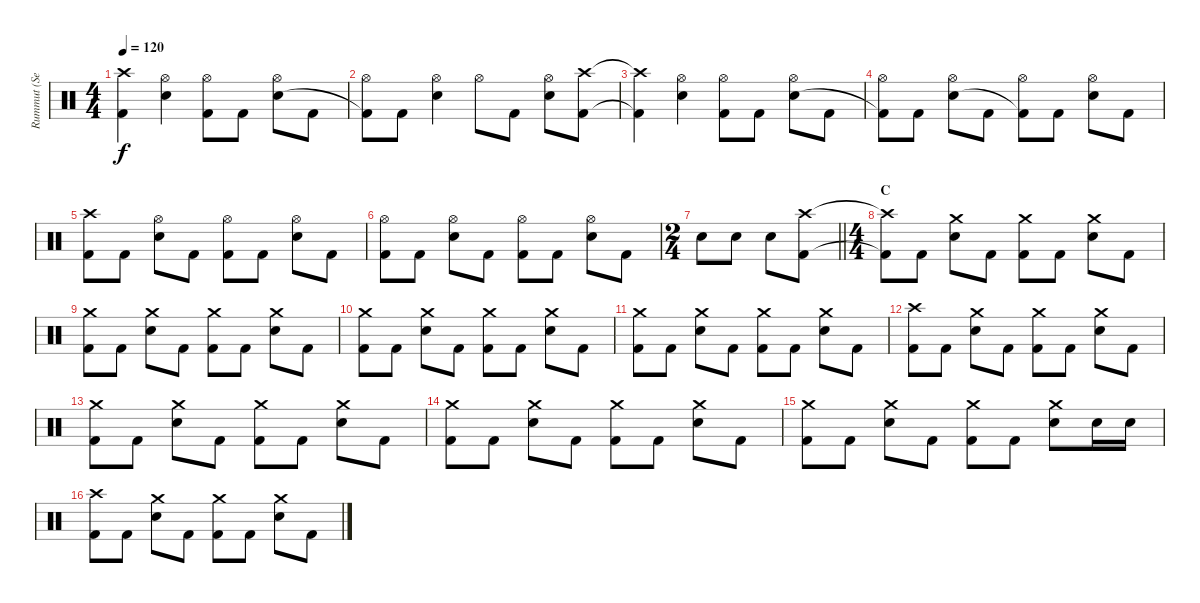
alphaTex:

\track ("Rummut (Seppo Pohjolainen)" "Rummut (Se") {instrument percussion}
\staff {score}
\articulation defaults
\ts (4 4)
\tempo 120
\clef neutral
\ks c
("Crash high (hit)"{t} "Kick (hit) 2"{t}).4{dy f} ("Hi-Hat (open)" "Electric Snare (hit)").4 ("Hi-Hat (open)" "Kick (hit) 2").8 "Kick (hit) 2".8 ("Hi-Hat (open)" "Electric Snare (hit)").8 "Kick (hit) 2".8 |
("Hi-Hat (open)" "Kick (hit) 2"{t}).8 "Kick (hit) 2".8 ("Hi-Hat (open)" "Electric Snare (hit)").4 "Hi-Hat (open)".8 "Kick (hit) 2".8 ("Hi-Hat (open)" "Electric Snare (hit)").8 ("Crash high (hit)" "Kick (hit) 2").8 |
("Crash high (hit)"{t} "Kick (hit) 2"{t}).4 ("Hi-Hat (open)" "Electric Snare (hit)").4 ("Hi-Hat (open)" "Kick (hit) 2").8 "Kick (hit) 2".8 ("Hi-Hat (open)" "Electric Snare (hit)").8 "Kick (hit) 2".8 |
("Hi-Hat (open)" "Kick (hit) 2"{t}).8 "Kick (hit) 2".8 ("Hi-Hat (open)" "Electric Snare (hit)").8 "Kick (hit) 2".8 ("Hi-Hat (open)" "Kick (hit) 2"{t}).8 "Kick (hit) 2".8 ("Hi-Hat (open)" "Electric Snare (hit)").8 "Kick (hit) 2".8 |
("Crash high (hit)" "Kick (hit) 2").8 "Kick (hit) 2".8 ("Hi-Hat (open)" "Electric Snare (hit)").8 "Kick (hit) 2".8 ("Hi-Hat (open)" "Kick (hit) 2").8 "Kick (hit) 2".8 ("Hi-Hat (open)" "Electric Snare (hit)").8 "Kick (hit) 2".8 |
("Hi-Hat (open)" "Kick (hit) 2").8 "Kick (hit) 2".8 ("Hi-Hat (open)" "Electric Snare (hit)").8 "Kick (hit) 2".8 ("Hi-Hat (open)" "Kick (hit) 2").8 "Kick (hit) 2".8 ("Hi-Hat (open)" "Electric Snare (hit)").8 "Kick (hit) 2".8 |
\ts (2 4)
\barLineRight lightlight "Electric Snare (hit)".8 "Electric Snare (hit)".8 "Electric Snare (hit)".8
("Crash high (hit)" "Kick (hit) 2").8 |
\ts (4 4)
\section ("" "C")
("Crash high (hit)"{t} "Kick (hit) 2"{t}).8 "Kick (hit) 2".8 ("Crash medium (hit)" "Electric Snare (hit)").8 "Kick (hit) 2".8 ("Crash medium (hit)" "Kick (hit) 2").8 "Kick (hit) 2".8 ("Crash medium (hit)" "Electric Snare (hit)").8 "Kick (hit) 2".8 |
("Crash medium (hit)" "Kick (hit) 2").8 "Kick (hit) 2".8 ("Crash medium (hit)" "Electric Snare (hit)").8 "Kick (hit) 2".8 ("Crash medium (hit)" "Kick (hit) 2").8 "Kick (hit) 2".8 ("Crash medium (hit)" "Electric Snare (hit)").8 "Kick (hit) 2".8 |
("Crash medium (hit)" "Kick (hit) 2").8 "Kick (hit) 2".8 ("Crash medium (hit)" "Electric Snare (hit)").8 "Kick (hit) 2".8 ("Crash medium (hit)" "Kick (hit) 2").8 "Kick (hit) 2".8 ("Crash medium (hit)" "Electric Snare (hit)").8 "Kick (hit) 2".8 |
("Crash medium (hit)" "Kick (hit) 2").8 "Kick (hit) 2".8 ("Crash medium (hit)" "Electric Snare (hit)").8 "Kick (hit) 2".8 ("Crash medium (hit)" "Kick (hit) 2").8 "Kick (hit) 2".8 ("Crash medium (hit)" "Electric Snare (hit)").8 "Kick (hit) 2".8 |
("Crash high (hit)" "Kick (hit) 2").8 "Kick (hit) 2".8 ("Crash medium (hit)" "Electric Snare (hit)").8 "Kick (hit) 2".8 ("Crash medium (hit)" "Kick (hit) 2").8 "Kick (hit) 2".8 ("Crash medium (hit)" "Electric Snare (hit)").8 "Kick (hit) 2".8 |
("Crash medium (hit)" "Kick (hit) 2").8 "Kick (hit) 2".8 ("Crash medium (hit)" "Electric Snare (hit)").8 "Kick (hit) 2".8 ("Crash medium (hit)" "Kick (hit) 2").8 "Kick (hit) 2".8 ("Crash medium (hit)" "Electric Snare (hit)").8 "Kick (hit) 2".8 |
("Crash medium (hit)" "Kick (hit) 2").8 "Kick (hit) 2".8 ("Crash medium (hit)" "Electric Snare (hit)").8 "Kick (hit) 2".8 ("Crash medium (hit)" "Kick (hit) 2").8 "Kick (hit) 2".8 ("Crash medium (hit)" "Electric Snare (hit)").8 "Kick (hit) 2".8 |
("Crash medium (hit)" "Kick (hit) 2").8 "Kick (hit) 2".8 ("Crash medium (hit)" "Electric Snare (hit)").8 "Kick (hit) 2".8 ("Crash medium (hit)" "Kick (hit) 2").8 "Kick (hit) 2".8 ("Crash medium (hit)" "Electric Snare (hit)").8 "Electric Snare (hit)".16 "Electric Snare (hit)".16 |
("Crash high (hit)" "Kick (hit) 2").8 "Kick (hit) 2".8 ("Crash medium (hit)" "Electric Snare (hit)").8 "Kick (hit) 2".8 ("Crash medium (hit)" "Kick (hit) 2").8 "Kick (hit) 2".8 ("Crash medium (hit)" "Electric Snare (hit)").8 "Kick (hit) 2".8
